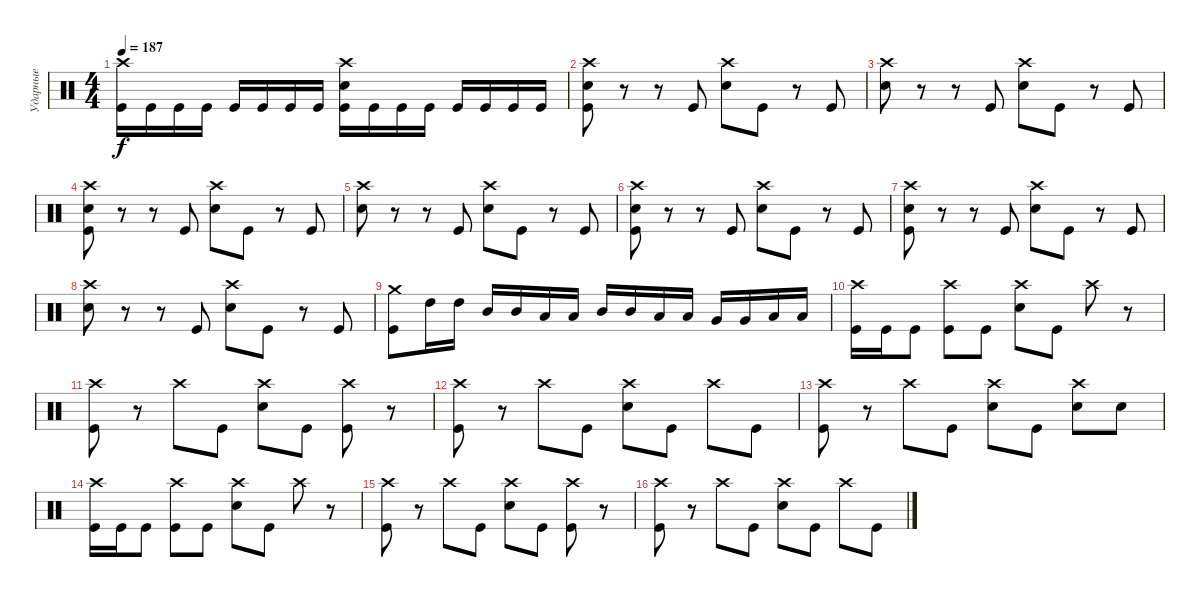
\track ("Ударные" "Ударные") {instrument percussion}
\staff {score}
\articulation defaults
\ts (4 4)
\tempo 187
\clef neutral
\ks c
("Crash high (hit)" "Kick (hit)").16{dy f} "Kick (hit)".16 "Kick (hit)".16 "Kick (hit)".16 "Kick (hit)".16 "Kick (hit)".16 "Kick (hit)".16 "Kick (hit)".16 ("Electric Snare (hit)" "Crash high (hit)" "Kick (hit)").16 "Kick (hit)".16 "Kick (hit)".16 "Kick (hit)".16 "Kick (hit)".16 "Kick (hit)".16 "Kick (hit)".16 "Kick (hit)".16 |
("Crash high (hit)" "Electric Snare (hit)" "Kick (hit)").8 r.8 r.8 "Kick (hit)".8 ("Crash high (hit)" "Electric Snare (hit)").8 "Kick (hit)".8 r.8 "Kick (hit)".8 |
("Crash high (hit)" "Electric Snare (hit)").8 r.8 r.8 "Kick (hit)".8 ("Crash high (hit)" "Electric Snare (hit)").8 "Kick (hit)".8 r.8 "Kick (hit)".8 |
("Crash high (hit)" "Electric Snare (hit)" "Kick (hit)").8 r.8 r.8 "Kick (hit)".8 ("Crash high (hit)" "Electric Snare (hit)").8 "Kick (hit)".8 r.8 "Kick (hit)".8 |
("Crash high (hit)" "Electric Snare (hit)").8 r.8 r.8 "Kick (hit)".8 ("Crash high (hit)" "Electric Snare (hit)").8 "Kick (hit)".8 r.8 "Kick (hit)".8 |
("Crash high (hit)" "Electric Snare (hit)" "Kick (hit)").8 r.8 r.8 "Kick (hit)".8 ("Crash high (hit)" "Electric Snare (hit)").8 "Kick (hit)".8 r.8 "Kick (hit)".8 |
("Crash high (hit)" "Electric Snare (hit)" "Kick (hit)").8 r.8 r.8 "Kick (hit)".8 ("Crash high (hit)" "Electric Snare (hit)").8 "Kick (hit)".8 r.8 "Kick (hit)".8 |
("Crash high (hit)" "Electric Snare (hit)").8 r.8 r.8 "Kick (hit)".8 ("Crash high (hit)" "Electric Snare (hit)").8 "Kick (hit)".8 r.8 "Kick (hit)".8 |
("Crash medium (hit)" "Kick (hit)").8 "High Tom (hit)".16 "High Tom (hit)".16 "Mid Tom (hit)".16 "Mid Tom (hit)".16 "Low Tom (hit)".16 "Low Tom (hit)".16 "Mid Tom (hit)".16 "Mid Tom (hit)".16 "Low Tom (hit)".16 "Low Tom (hit)".16 "Very Low Tom (hit)".16 "Very Low Tom (hit)".16 "Low Floor Tom (hit)".16 "Low Floor Tom (hit)".16 |
("Crash high (hit)" "Kick (hit)").16 "Kick (hit)".16 "Kick (hit)".8 ("Crash high (hit)" "Kick (hit)").8 "Kick (hit)".8 ("Crash high (hit)" "Electric Snare (hit)").8 "Kick (hit)".8 "Crash high (hit)".8 r.8 |
("Crash high (hit)" "Kick (hit)").8 r.8 "Crash high (hit)".8 "Kick (hit)".8 ("Crash high (hit)" "Electric Snare (hit)").8 "Kick (hit)".8 ("Crash high (hit)" "Kick (hit)").8 r.8 |
("Crash high (hit)" "Kick (hit)").8 r.8 "Crash high (hit)".8 "Kick (hit)".8 ("Crash high (hit)" "Electric Snare (hit)").8 "Kick (hit)".8 "Crash high (hit)".8 "Kick (hit)".8 |
("Crash high (hit)" "Kick (hit)").8 r.8 "Crash high (hit)".8 "Kick (hit)".8 ("Crash high (hit)" "Electric Snare (hit)").8 "Kick (hit)".8 ("Crash high (hit)" "Electric Snare (hit)").8 "Electric Snare (hit)".8 |
("Crash high (hit)" "Kick (hit)").16 "Kick (hit)".16 "Kick (hit)".8 ("Crash high (hit)" "Kick (hit)").8 "Kick (hit)".8 ("Crash high (hit)" "Electric Snare (hit)").8 "Kick (hit)".8 "Crash high (hit)".8 r.8 |
("Crash high (hit)" "Kick (hit)").8 r.8 "Crash high (hit)".8 "Kick (hit)".8 ("Crash high (hit)" "Electric Snare (hit)").8 "Kick (hit)".8 ("Crash high (hit)" "Kick (hit)").8 r.8 |
("Crash high (hit)" "Kick (hit)").8 r.8 "Crash high (hit)".8 "Kick (hit)".8 ("Crash high (hit)" "Electric Snare (hit)").8 "Kick (hit)".8 "Crash high (hit)".8 "Kick (hit)".8
